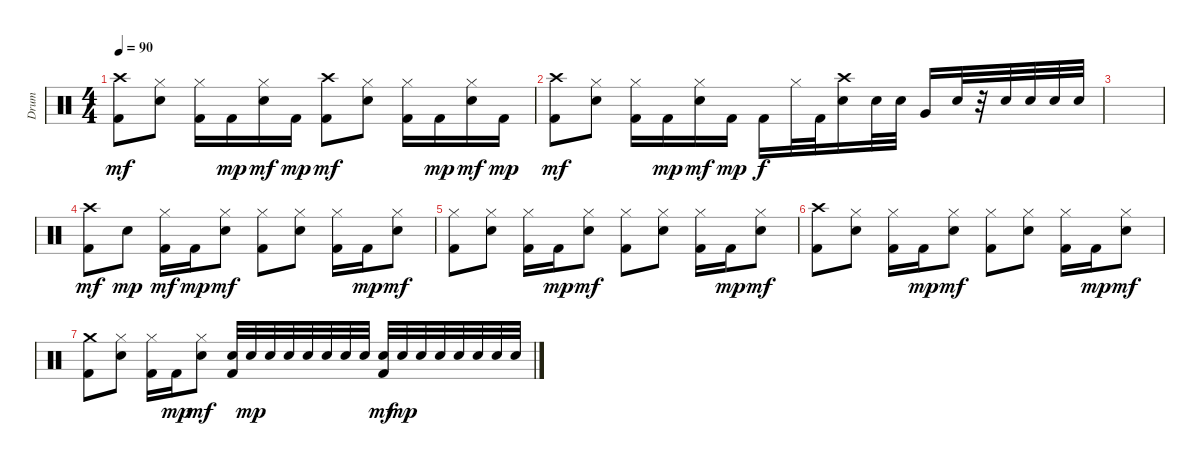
\track ("Drum" "Drum") {instrument percussion}
\staff {score}
\articulation defaults
\ts (4 4)
\tempo 90
\clef neutral
\ks c
("Crash high (hit)" "Kick (hit) 2").8{dy mf} ("Snare (hit) 2" "Hi-Hat (closed)").8 ("Hi-Hat (closed)" "Kick (hit) 2").16 "Kick (hit) 2".16{dy mp} ("Snare (hit) 2" "Hi-Hat (closed)").16{dy mf} "Kick (hit) 2".16{dy mp} ("Crash high (hit)" "Kick (hit) 2").8{dy mf} ("Snare (hit) 2" "Hi-Hat (closed)").8 ("Hi-Hat (closed)" "Kick (hit) 2").16 "Kick (hit) 2".16{dy mp} ("Snare (hit) 2" "Hi-Hat (closed)").16{dy mf} "Kick (hit) 2".16{dy mp} |
("Crash high (hit)" "Kick (hit) 2").8{dy mf} ("Snare (hit) 2" "Hi-Hat (closed)").8 ("Hi-Hat (closed)" "Kick (hit) 2").16 "Kick (hit) 2".16{dy mp} ("Snare (hit) 2" "Hi-Hat (closed)").16{dy mf} "Kick (hit) 2".16{dy mp} "Kick (hit) 2".16{dy f} "Hi-Hat (closed)".32 "Kick (hit) 2".32 ("Snare (hit) 2" "Crash high (hit)").16 "Snare (hit) 2".32 "Snare (hit) 2".32 "Very Low Tom (hit)".16 "Snare (hit) 2".32 r.32 "Snare (hit) 2".32 "Snare (hit) 2".32 "Snare (hit) 2".32 "Snare (hit) 2".32 |
|
("Crash high (hit)" "Kick (hit) 2").8{dy mf} "Snare (hit) 2".8{dy mp} ("Hi-Hat (closed)" "Kick (hit) 2").16{dy mf} "Kick (hit) 2".16{dy mp} ("Snare (hit) 2" "Hi-Hat (closed)").8{dy mf} ("Hi-Hat (closed)" "Kick (hit) 2").8 ("Snare (hit) 2" "Hi-Hat (closed)").8 ("Hi-Hat (closed)" "Kick (hit) 2").16 "Kick (hit) 2".16{dy mp} ("Snare (hit) 2" "Hi-Hat (closed)").8{dy mf} |
("Hi-Hat (closed)" "Kick (hit) 2").8 ("Snare (hit) 2" "Hi-Hat (closed)").8 ("Hi-Hat (closed)" "Kick (hit) 2").16 "Kick (hit) 2".16{dy mp} ("Snare (hit) 2" "Hi-Hat (closed)").8{dy mf} ("Hi-Hat (closed)" "Kick (hit) 2").8 ("Snare (hit) 2" "Hi-Hat (closed)").8 ("Hi-Hat (closed)" "Kick (hit) 2").16 "Kick (hit) 2".16{dy mp} ("Snare (hit) 2" "Hi-Hat (closed)").8{dy mf} |
("Crash high (hit)" "Kick (hit) 2").8 ("Snare (hit) 2" "Hi-Hat (closed)").8 ("Hi-Hat (closed)" "Kick (hit) 2").16 "Kick (hit) 2".16{dy mp} ("Snare (hit) 2" "Hi-Hat (closed)").8{dy mf} ("Hi-Hat (closed)" "Kick (hit) 2").8 ("Snare (hit) 2" "Hi-Hat (closed)").8 ("Hi-Hat (closed)" "Kick (hit) 2").16 "Kick (hit) 2".16{dy mp} ("Snare (hit) 2" "Hi-Hat (closed)").8{dy mf} |
("Crash medium (hit)" "Kick (hit) 2").8 ("Snare (hit) 2" "Hi-Hat (closed)").8 ("Hi-Hat (closed)" "Kick (hit) 2").16 "Kick (hit) 2".16{dy mp} ("Snare (hit) 2" "Hi-Hat (closed)").8{dy mf} ("Snare (hit) 2" "Kick (hit) 2").32 "Snare (hit) 2".32{dy mp} "Snare (hit) 2".32 "Snare (hit) 2".32 "Snare (hit) 2".32 "Snare (hit) 2".32 "Snare (hit) 2".32 "Snare (hit) 2".32 ("Snare (hit) 2" "Kick (hit) 2").32{dy mf} "Snare (hit) 2".32{dy mp} "Snare (hit) 2".32 "Snare (hit) 2".32 "Snare (hit) 2".32 "Snare (hit) 2".32 "Snare (hit) 2".32 "Snare (hit) 2".32
